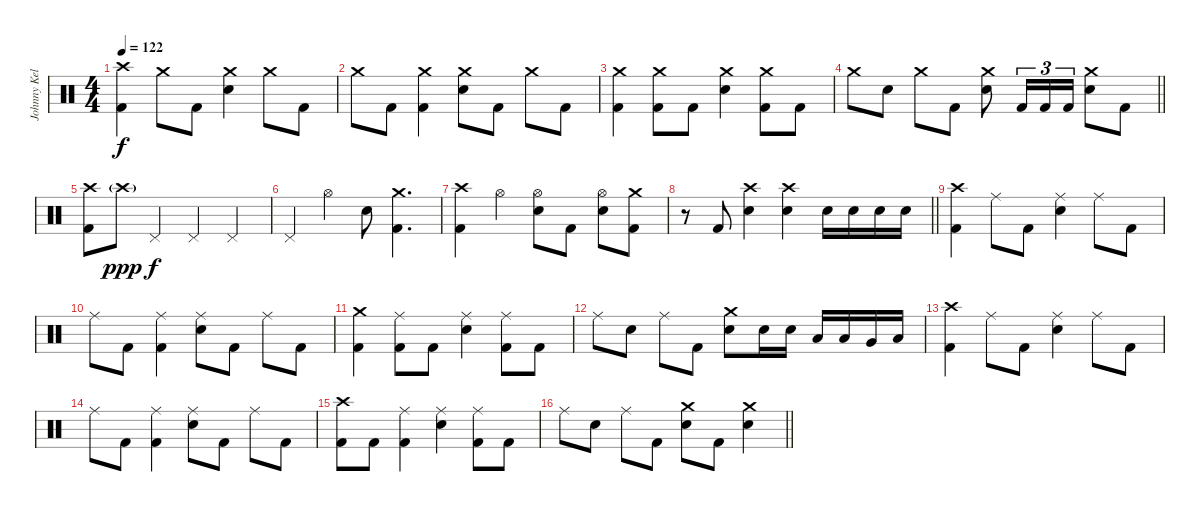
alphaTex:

\track ("Johnny Kelly" "Johnny Kel") {instrument percussion}
\staff {score}
\articulation defaults
\ts (4 4)
\section ("" "")
\tempo 122
\clef neutral
\ks c
("Crash high (hit)" "Kick (hit) 2").4{dy f} "Crash medium (hit)".8 "Kick (hit) 2".8 ("Crash medium (hit)" "Electric Snare (hit)").4 "Crash medium (hit)".8 "Kick (hit) 2".8 |
"Crash medium (hit)".8 "Kick (hit) 2".8 ("Crash medium (hit)" "Kick (hit) 2").4 ("Crash medium (hit)" "Electric Snare (hit)").8 "Kick (hit) 2".8 "Crash medium (hit)".8 "Kick (hit) 2".8 |
("Crash medium (hit)" "Kick (hit) 2").4 ("Crash medium (hit)" "Kick (hit) 2").8 "Kick (hit) 2".8 ("Crash medium (hit)" "Electric Snare (hit)").4 ("Crash medium (hit)" "Kick (hit) 2").8 "Kick (hit) 2".8 |
\barLineRight lightlight "Crash medium (hit)".8 "Electric Snare (hit)".8 "Crash medium (hit)".8 "Kick (hit) 2".8
("Crash medium (hit)" "Electric Snare (hit)").8 "Kick (hit) 2".16{tu (3 2)} "Kick (hit) 2".16{tu (3 2)} "Kick (hit) 2".16{tu (3 2)} ("Crash medium (hit)" "Electric Snare (hit)").8 "Kick (hit) 2".8 |
\section ("" "")
("Crash high (hit)" "Kick (hit) 2").8 "Crash high (hit)"{g}.8{dy ppp} "Pedal Hi-Hat (hit)".4{dy f} "Pedal Hi-Hat (hit)".4 "Pedal Hi-Hat (hit)".4 |
"Pedal Hi-Hat (hit)".4 "Hi-Hat (open)".4 "Electric Snare (hit)".8 ("Crash medium (hit)" "Kick (hit) 2").4{d} |
("Crash high (hit)" "Kick (hit) 2").4 "Hi-Hat (open)".4 ("Hi-Hat (open)" "Electric Snare (hit)").8 "Kick (hit) 2".8 ("Hi-Hat (open)" "Electric Snare (hit)").8 ("Crash medium (hit)" "Kick (hit) 2").8 |
\barLineRight lightlight
r.8 "Kick (hit) 2".8 ("Crash high (hit)" "Electric Snare (hit)").4 ("Crash high (hit)" "Electric Snare (hit)").4 "Electric Snare (hit)".16 "Electric Snare (hit)".16 "Electric Snare (hit)".16 "Electric Snare (hit)".16 |
\section ("" "")
("Crash high (hit)" "Kick (hit) 2").4 "Ride (middle)".8 "Kick (hit) 2".8 ("Ride (middle)" "Electric Snare (hit)").4 "Ride (middle)".8 "Kick (hit) 2".8 |
"Ride (middle)".8 "Kick (hit) 2".8 ("Ride (middle)" "Kick (hit) 2").4 ("Ride (middle)" "Electric Snare (hit)").8 "Kick (hit) 2".8 "Ride (middle)".8 "Kick (hit) 2".8 |
("Crash medium (hit)" "Kick (hit) 2").4 ("Ride (middle)" "Kick (hit) 2").8 "Kick (hit) 2".8 ("Ride (middle)" "Electric Snare (hit)").4 ("Ride (middle)" "Kick (hit) 2").8 "Kick (hit) 2".8 |
"Ride (middle)".8 "Electric Snare (hit)".8 "Ride (middle)".8 "Kick (hit) 2".8 ("Crash medium (hit)" "Electric Snare (hit)").8 "Electric Snare (hit)".16 "Electric Snare (hit)".16 "Low Tom (hit)".16 "Low Tom (hit)".16 "Very Low Tom (hit)".16 "Low Floor Tom (hit)".16 |
("Crash high (hit)" "Kick (hit) 2").4 "Ride (middle)".8 "Kick (hit) 2".8 ("Ride (middle)" "Electric Snare (hit)").4 "Ride (middle)".8 "Kick (hit) 2".8 |
"Ride (middle)".8 "Kick (hit) 2".8 ("Ride (middle)" "Kick (hit) 2").4 ("Ride (middle)" "Electric Snare (hit)").8 "Kick (hit) 2".8 "Ride (middle)".8 "Kick (hit) 2".8 |
("Crash high (hit)" "Kick (hit) 2").8 "Kick (hit) 2".8 ("Ride (middle)" "Kick (hit) 2").4 ("Ride (middle)" "Electric Snare (hit)").4 ("Ride (middle)" "Kick (hit) 2").8 "Kick (hit) 2".8 |
\barLineRight lightlight "Ride (middle)".8 "Electric Snare (hit)".8 "Ride (middle)".8 "Kick (hit) 2".8
("Crash medium (hit)" "Electric Snare (hit)").8 "Kick (hit) 2".8 ("Crash medium (hit)" "Electric Snare (hit)").4
